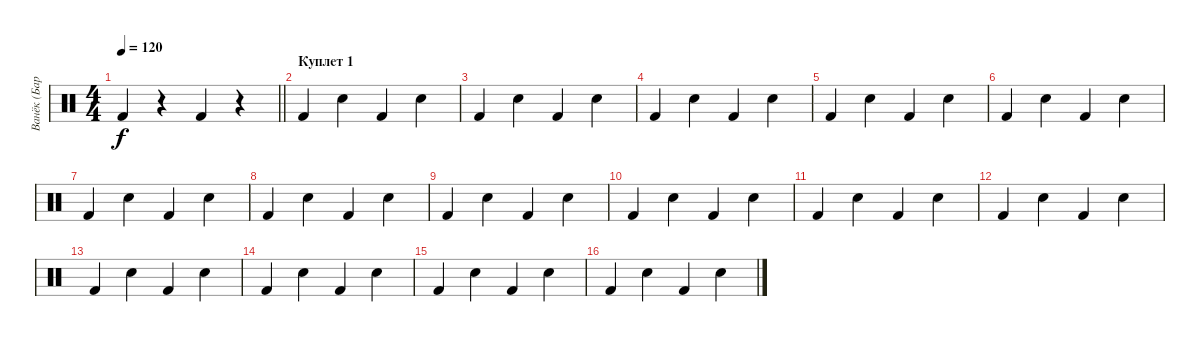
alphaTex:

\track ("Ванёк (Барабанщик)" "Ванёк (Бар") {instrument percussion}
\staff {score}
\articulation defaults
\ts (4 4)
\tempo 120
\clef neutral
\barLineRight lightlight
\ks c "Kick (hit) 2".4{dy f}
r.4 "Kick (hit) 2".4 r.4 |
\section ("" "Куплет 1")
"Kick (hit) 2".4 "Electric Snare (hit)".4 "Kick (hit) 2".4 "Electric Snare (hit)".4 |
"Kick (hit) 2".4 "Electric Snare (hit)".4 "Kick (hit) 2".4 "Electric Snare (hit)".4 |
"Kick (hit) 2".4 "Electric Snare (hit)".4 "Kick (hit) 2".4 "Electric Snare (hit)".4 |
"Kick (hit) 2".4 "Electric Snare (hit)".4 "Kick (hit) 2".4 "Electric Snare (hit)".4 |
"Kick (hit) 2".4 "Electric Snare (hit)".4 "Kick (hit) 2".4 "Electric Snare (hit)".4 |
"Kick (hit) 2".4 "Electric Snare (hit)".4 "Kick (hit) 2".4 "Electric Snare (hit)".4 |
"Kick (hit) 2".4 "Electric Snare (hit)".4 "Kick (hit) 2".4 "Electric Snare (hit)".4 |
"Kick (hit) 2".4 "Electric Snare (hit)".4 "Kick (hit) 2".4 "Electric Snare (hit)".4 |
"Kick (hit) 2".4 "Electric Snare (hit)".4 "Kick (hit) 2".4 "Electric Snare (hit)".4 |
"Kick (hit) 2".4 "Electric Snare (hit)".4 "Kick (hit) 2".4 "Electric Snare (hit)".4 |
"Kick (hit) 2".4 "Electric Snare (hit)".4 "Kick (hit) 2".4 "Electric Snare (hit)".4 |
"Kick (hit) 2".4 "Electric Snare (hit)".4 "Kick (hit) 2".4 "Electric Snare (hit)".4 |
"Kick (hit) 2".4 "Electric Snare (hit)".4 "Kick (hit) 2".4 "Electric Snare (hit)".4 |
"Kick (hit) 2".4 "Electric Snare (hit)".4 "Kick (hit) 2".4 "Electric Snare (hit)".4 |
"Kick (hit) 2".4 "Electric Snare (hit)".4 "Kick (hit) 2".4 "Electric Snare (hit)".4
